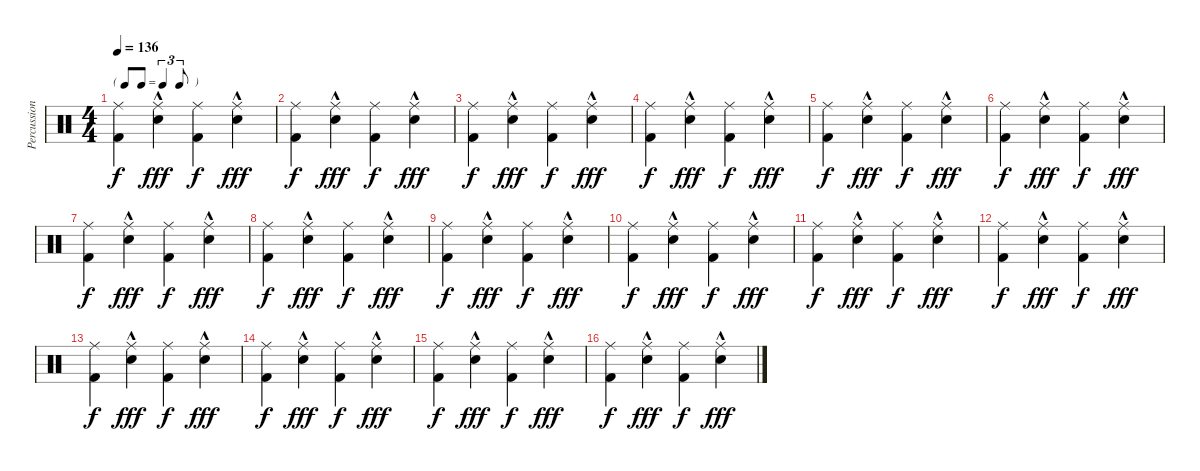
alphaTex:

\track ("Percussion" "Percussion") {instrument percussion}
\staff {score}
\articulation defaults
\ts (4 4)
\tf triplet8th
\tempo 136
\clef neutral
\ks c
("Kick (hit) 2" "Ride (middle)").4{dy f} ("Ride (middle)" "Electric Snare (hit)"{hac}).4{dy fff} ("Ride (middle)" "Kick (hit) 2").4{dy f} ("Ride (middle)" "Electric Snare (hit)"{hac}).4{dy fff} |
("Kick (hit) 2" "Ride (middle)").4{dy f} ("Ride (middle)" "Electric Snare (hit)"{hac}).4{dy fff} ("Ride (middle)" "Kick (hit) 2").4{dy f} ("Ride (middle)" "Electric Snare (hit)"{hac}).4{dy fff} |
("Kick (hit) 2" "Ride (middle)").4{dy f} ("Ride (middle)" "Electric Snare (hit)"{hac}).4{dy fff} ("Ride (middle)" "Kick (hit) 2").4{dy f} ("Ride (middle)" "Electric Snare (hit)"{hac}).4{dy fff} |
("Kick (hit) 2" "Ride (middle)").4{dy f} ("Ride (middle)" "Electric Snare (hit)"{hac}).4{dy fff} ("Ride (middle)" "Kick (hit) 2").4{dy f} ("Ride (middle)" "Electric Snare (hit)"{hac}).4{dy fff} |
("Kick (hit) 2" "Ride (middle)").4{dy f} ("Ride (middle)" "Electric Snare (hit)"{hac}).4{dy fff} ("Ride (middle)" "Kick (hit) 2").4{dy f} ("Ride (middle)" "Electric Snare (hit)"{hac}).4{dy fff} |
("Kick (hit) 2" "Ride (middle)").4{dy f} ("Ride (middle)" "Electric Snare (hit)"{hac}).4{dy fff} ("Ride (middle)" "Kick (hit) 2").4{dy f} ("Ride (middle)" "Electric Snare (hit)"{hac}).4{dy fff} |
("Kick (hit) 2" "Ride (middle)").4{dy f} ("Ride (middle)" "Electric Snare (hit)"{hac}).4{dy fff} ("Ride (middle)" "Kick (hit) 2").4{dy f} ("Ride (middle)" "Electric Snare (hit)"{hac}).4{dy fff} |
("Kick (hit) 2" "Ride (middle)").4{dy f} ("Ride (middle)" "Electric Snare (hit)"{hac}).4{dy fff} ("Ride (middle)" "Kick (hit) 2").4{dy f} ("Ride (middle)" "Electric Snare (hit)"{hac}).4{dy fff} |
("Kick (hit) 2" "Ride (middle)").4{dy f} ("Ride (middle)" "Electric Snare (hit)"{hac}).4{dy fff} ("Ride (middle)" "Kick (hit) 2").4{dy f} ("Ride (middle)" "Electric Snare (hit)"{hac}).4{dy fff} |
("Kick (hit) 2" "Ride (middle)").4{dy f} ("Ride (middle)" "Electric Snare (hit)"{hac}).4{dy fff} ("Ride (middle)" "Kick (hit) 2").4{dy f} ("Ride (middle)" "Electric Snare (hit)"{hac}).4{dy fff} |
("Kick (hit) 2" "Ride (middle)").4{dy f} ("Ride (middle)" "Electric Snare (hit)"{hac}).4{dy fff} ("Ride (middle)" "Kick (hit) 2").4{dy f} ("Ride (middle)" "Electric Snare (hit)"{hac}).4{dy fff} |
("Kick (hit) 2" "Ride (middle)").4{dy f} ("Ride (middle)" "Electric Snare (hit)"{hac}).4{dy fff} ("Ride (middle)" "Kick (hit) 2").4{dy f} ("Ride (middle)" "Electric Snare (hit)"{hac}).4{dy fff} |
("Kick (hit) 2" "Ride (middle)").4{dy f} ("Ride (middle)" "Electric Snare (hit)"{hac}).4{dy fff} ("Ride (middle)" "Kick (hit) 2").4{dy f} ("Ride (middle)" "Electric Snare (hit)"{hac}).4{dy fff} |
("Kick (hit) 2" "Ride (middle)").4{dy f} ("Ride (middle)" "Electric Snare (hit)"{hac}).4{dy fff} ("Ride (middle)" "Kick (hit) 2").4{dy f} ("Ride (middle)" "Electric Snare (hit)"{hac}).4{dy fff} |
("Kick (hit) 2" "Ride (middle)").4{dy f} ("Ride (middle)" "Electric Snare (hit)"{hac}).4{dy fff} ("Ride (middle)" "Kick (hit) 2").4{dy f} ("Ride (middle)" "Electric Snare (hit)"{hac}).4{dy fff} |
("Kick (hit) 2" "Ride (middle)").4{dy f} ("Ride (middle)" "Electric Snare (hit)"{hac}).4{dy fff} ("Ride (middle)" "Kick (hit) 2").4{dy f} ("Ride (middle)" "Electric Snare (hit)"{hac}).4{dy fff}
